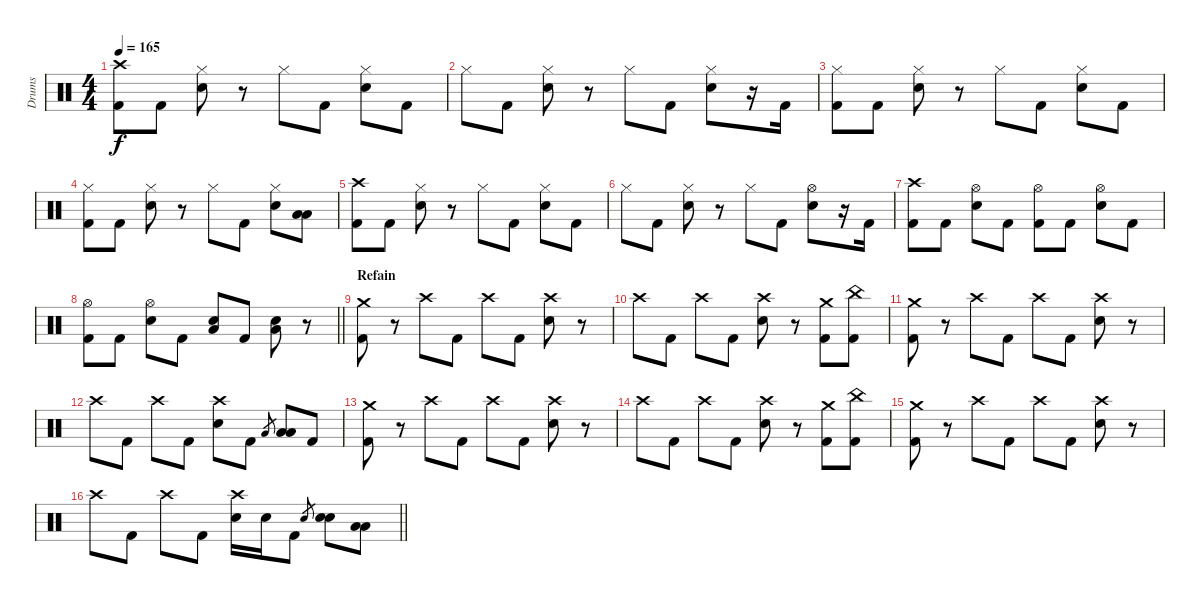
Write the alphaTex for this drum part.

\track ("Drums" "Drums") {instrument percussion}
\staff {score}
\articulation defaults
\ts (4 4)
\section ("" "")
\tempo 165
\clef neutral
\ks c
("Crash high (hit)" "Kick (hit) 2").8{dy f} "Kick (hit) 2".8 ("Hi-Hat (closed)" "Electric Snare (hit)").8 r.8 "Hi-Hat (closed)".8 "Kick (hit) 2".8 ("Hi-Hat (closed)" "Electric Snare (hit)").8 "Kick (hit) 2".8 |
"Hi-Hat (closed)".8 "Kick (hit) 2".8 ("Hi-Hat (closed)" "Electric Snare (hit)").8 r.8 "Hi-Hat (closed)".8 "Kick (hit) 2".8 ("Hi-Hat (closed)" "Electric Snare (hit)").8 r.16 "Kick (hit) 2".16 |
("Hi-Hat (closed)" "Kick (hit) 2").8 "Kick (hit) 2".8 ("Hi-Hat (closed)" "Electric Snare (hit)").8 r.8 "Hi-Hat (closed)".8 "Kick (hit) 2".8 ("Hi-Hat (closed)" "Electric Snare (hit)").8 "Kick (hit) 2".8 |
("Hi-Hat (closed)" "Kick (hit) 2").8 "Kick (hit) 2".8 ("Hi-Hat (closed)" "Electric Snare (hit)").8 r.8 "Hi-Hat (closed)".8 "Kick (hit) 2".8 ("Hi-Hat (closed)" "Electric Snare (hit)").8 ("Low Tom (hit)" "Low Floor Tom (hit)").8 |
("Crash high (hit)" "Kick (hit) 2").8 "Kick (hit) 2".8 ("Hi-Hat (closed)" "Electric Snare (hit)").8 r.8 "Hi-Hat (closed)".8 "Kick (hit) 2".8 ("Hi-Hat (closed)" "Electric Snare (hit)").8 "Kick (hit) 2".8 |
"Hi-Hat (closed)".8 "Kick (hit) 2".8 ("Hi-Hat (closed)" "Electric Snare (hit)").8 r.8 "Hi-Hat (closed)".8 "Kick (hit) 2".8 ("Hi-Hat (open)" "Electric Snare (hit)").8 r.16 "Kick (hit) 2".16 |
("Crash high (hit)" "Kick (hit) 2").8 "Kick (hit) 2".8 ("Hi-Hat (open)" "Electric Snare (hit)").8 "Kick (hit) 2".8 ("Hi-Hat (open)" "Kick (hit) 2").8 "Kick (hit) 2".8 ("Hi-Hat (open)" "Electric Snare (hit)").8 "Kick (hit) 2".8 |
\barLineRight lightlight
("Hi-Hat (open)" "Kick (hit) 2").8 "Kick (hit) 2".8 ("Hi-Hat (open)" "Electric Snare (hit)").8 "Kick (hit) 2".8 ("Electric Snare (hit)" "Low Floor Tom (hit)").8 "Kick (hit) 2".8 ("Electric Snare (hit)" "Low Floor Tom (hit)").8 r.8 |
\section ("" "Refain")
("Crash medium (hit)" "Kick (hit) 2").8 r.8 "Crash high (hit)".8 "Kick (hit) 2".8 "Crash high (hit)".8 "Kick (hit) 2".8 ("Crash high (hit)" "Electric Snare (hit)").8 r.8 |
"Crash high (hit)".8 "Kick (hit) 2".8 "Crash high (hit)".8 "Kick (hit) 2".8 ("Crash high (hit)" "Electric Snare (hit)").8 r.8 ("Crash medium (hit)" "Kick (hit) 2").8 ("China (hit)" "Kick (hit) 2").8 |
("Crash medium (hit)" "Kick (hit) 2").8 r.8 "Crash high (hit)".8 "Kick (hit) 2".8 "Crash high (hit)".8 "Kick (hit) 2".8 ("Crash high (hit)" "Electric Snare (hit)").8 r.8 |
"Crash high (hit)".8 "Kick (hit) 2".8 "Crash high (hit)".8 "Kick (hit) 2".8 ("Crash high (hit)" "Electric Snare (hit)").8 "Kick (hit) 2".8 "Low Tom (hit)".8{gr} ("Low Tom (hit)" "Low Floor Tom (hit)").8 "Kick (hit) 2".8 |
("Crash medium (hit)" "Kick (hit) 2").8 r.8 "Crash high (hit)".8 "Kick (hit) 2".8 "Crash high (hit)".8 "Kick (hit) 2".8 ("Crash high (hit)" "Electric Snare (hit)").8 r.8 |
"Crash high (hit)".8 "Kick (hit) 2".8 "Crash high (hit)".8 "Kick (hit) 2".8 ("Crash high (hit)" "Electric Snare (hit)").8 r.8 ("Crash medium (hit)" "Kick (hit) 2").8 ("China (hit)" "Kick (hit) 2").8 |
("Crash medium (hit)" "Kick (hit) 2").8 r.8 "Crash high (hit)".8 "Kick (hit) 2".8 "Crash high (hit)".8 "Kick (hit) 2".8 ("Crash high (hit)" "Electric Snare (hit)").8 r.8 |
\barLineRight lightlight "Crash high (hit)".8 "Kick (hit) 2".8 "Crash high (hit)".8 "Kick (hit) 2".8
("Crash high (hit)" "Electric Snare (hit)").16 "Electric Snare (hit)".16 "Kick (hit) 2".8 "Electric Snare (hit)".8{gr} ("Electric Snare (hit)" "Electric Snare (hit)").8 ("Low Tom (hit)" "Low Floor Tom (hit)").8
